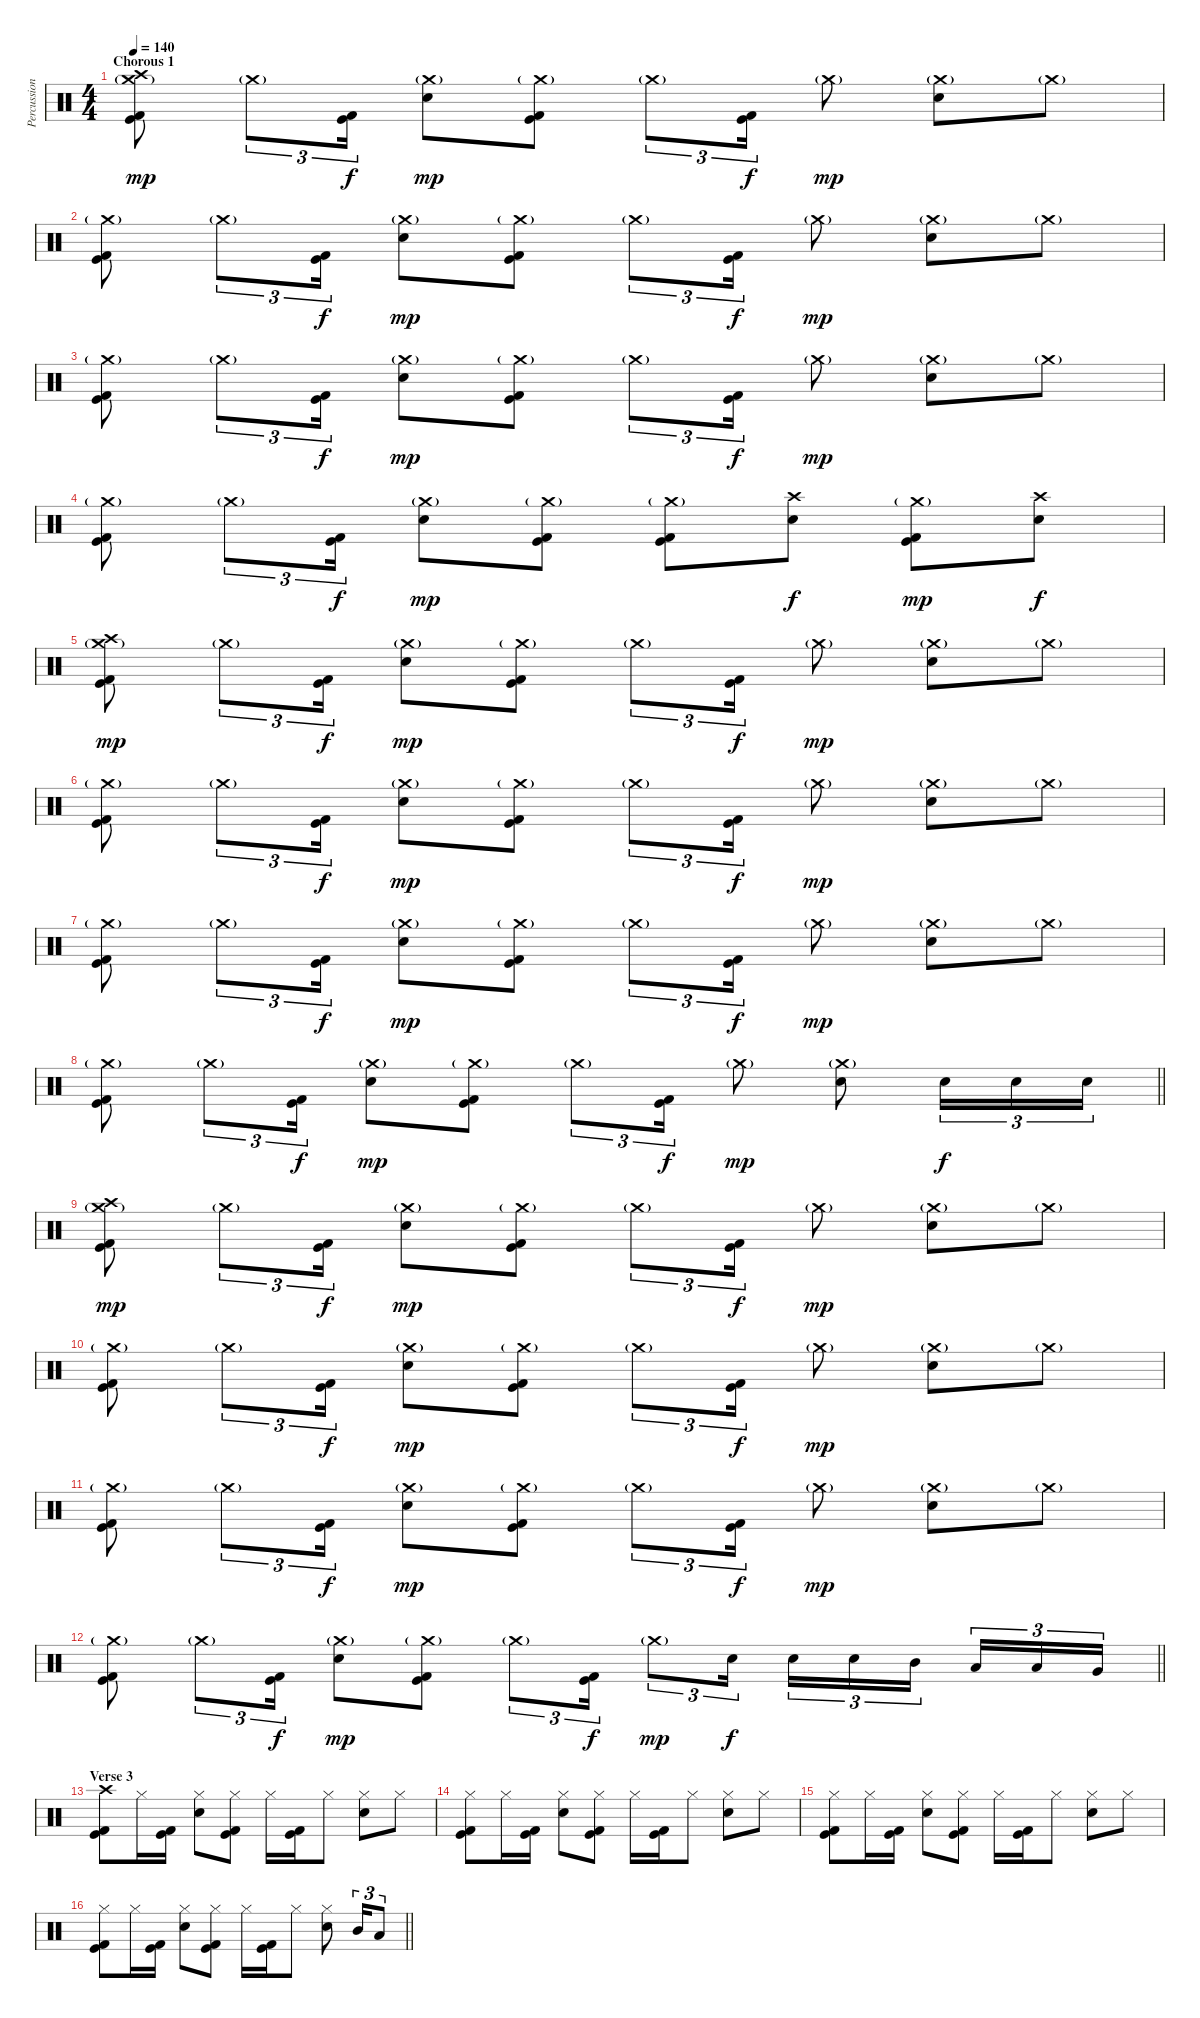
\track ("Percussion" "Percussion") {instrument percussion}
\staff {score}
\articulation defaults
\ts (4 4)
\section ("" "Chorous 1")
\tempo 140
\clef neutral
\ks c
("Crash medium (hit)"{g} "Crash high (hit)" "Kick (hit)" "Kick (hit) 2").8{dy mp} "Crash medium (hit)"{g}.8{tu (3 2)} ("Kick (hit)" "Kick (hit) 2").16{tu (3 2) dy f} ("Crash medium (hit)"{g} "Electric Snare (hit)").8{dy mp} ("Crash medium (hit)"{g} "Kick (hit)" "Kick (hit) 2").8 "Crash medium (hit)"{g}.8{tu (3 2)} ("Kick (hit)" "Kick (hit) 2").16{tu (3 2) dy f} "Crash medium (hit)"{g}.8{dy mp} ("Crash medium (hit)"{g} "Electric Snare (hit)").8 "Crash medium (hit)"{g}.8 |
("Crash medium (hit)"{g} "Kick (hit)" "Kick (hit) 2").8 "Crash medium (hit)"{g}.8{tu (3 2)} ("Kick (hit)" "Kick (hit) 2").16{tu (3 2) dy f} ("Crash medium (hit)"{g} "Electric Snare (hit)").8{dy mp} ("Crash medium (hit)"{g} "Kick (hit)" "Kick (hit) 2").8 "Crash medium (hit)"{g}.8{tu (3 2)} ("Kick (hit)" "Kick (hit) 2").16{tu (3 2) dy f} "Crash medium (hit)"{g}.8{dy mp} ("Crash medium (hit)"{g} "Electric Snare (hit)").8 "Crash medium (hit)"{g}.8 |
("Crash medium (hit)"{g} "Kick (hit)" "Kick (hit) 2").8 "Crash medium (hit)"{g}.8{tu (3 2)} ("Kick (hit)" "Kick (hit) 2").16{tu (3 2) dy f} ("Crash medium (hit)"{g} "Electric Snare (hit)").8{dy mp} ("Crash medium (hit)"{g} "Kick (hit)" "Kick (hit) 2").8 "Crash medium (hit)"{g}.8{tu (3 2)} ("Kick (hit)" "Kick (hit) 2").16{tu (3 2) dy f} "Crash medium (hit)"{g}.8{dy mp} ("Crash medium (hit)"{g} "Electric Snare (hit)").8 "Crash medium (hit)"{g}.8 |
("Crash medium (hit)"{g} "Kick (hit)" "Kick (hit) 2").8 "Crash medium (hit)"{g}.8{tu (3 2)} ("Kick (hit)" "Kick (hit) 2").16{tu (3 2) dy f} ("Crash medium (hit)"{g} "Electric Snare (hit)").8{dy mp} ("Crash medium (hit)"{g} "Kick (hit)" "Kick (hit) 2").8 ("Crash medium (hit)"{g} "Kick (hit)" "Kick (hit) 2").8 ("Crash high (hit)" "Electric Snare (hit)").8{dy f} ("Crash medium (hit)"{g} "Kick (hit)" "Kick (hit) 2").8{dy mp} ("Crash high (hit)" "Electric Snare (hit)").8{dy f} |
("Crash medium (hit)"{g} "Crash high (hit)" "Kick (hit)" "Kick (hit) 2").8{dy mp} "Crash medium (hit)"{g}.8{tu (3 2)} ("Kick (hit)" "Kick (hit) 2").16{tu (3 2) dy f} ("Crash medium (hit)"{g} "Electric Snare (hit)").8{dy mp} ("Crash medium (hit)"{g} "Kick (hit)" "Kick (hit) 2").8 "Crash medium (hit)"{g}.8{tu (3 2)} ("Kick (hit)" "Kick (hit) 2").16{tu (3 2) dy f} "Crash medium (hit)"{g}.8{dy mp} ("Crash medium (hit)"{g} "Electric Snare (hit)").8 "Crash medium (hit)"{g}.8 |
("Crash medium (hit)"{g} "Kick (hit)" "Kick (hit) 2").8 "Crash medium (hit)"{g}.8{tu (3 2)} ("Kick (hit)" "Kick (hit) 2").16{tu (3 2) dy f} ("Crash medium (hit)"{g} "Electric Snare (hit)").8{dy mp} ("Crash medium (hit)"{g} "Kick (hit)" "Kick (hit) 2").8 "Crash medium (hit)"{g}.8{tu (3 2)} ("Kick (hit)" "Kick (hit) 2").16{tu (3 2) dy f} "Crash medium (hit)"{g}.8{dy mp} ("Crash medium (hit)"{g} "Electric Snare (hit)").8 "Crash medium (hit)"{g}.8 |
("Crash medium (hit)"{g} "Kick (hit)" "Kick (hit) 2").8 "Crash medium (hit)"{g}.8{tu (3 2)} ("Kick (hit)" "Kick (hit) 2").16{tu (3 2) dy f} ("Crash medium (hit)"{g} "Electric Snare (hit)").8{dy mp} ("Crash medium (hit)"{g} "Kick (hit)" "Kick (hit) 2").8 "Crash medium (hit)"{g}.8{tu (3 2)} ("Kick (hit)" "Kick (hit) 2").16{tu (3 2) dy f} "Crash medium (hit)"{g}.8{dy mp} ("Crash medium (hit)"{g} "Electric Snare (hit)").8 "Crash medium (hit)"{g}.8 |
\barLineRight lightlight
("Crash medium (hit)"{g} "Kick (hit)" "Kick (hit) 2").8 "Crash medium (hit)"{g}.8{tu (3 2)} ("Kick (hit)" "Kick (hit) 2").16{tu (3 2) dy f} ("Crash medium (hit)"{g} "Electric Snare (hit)").8{dy mp} ("Crash medium (hit)"{g} "Kick (hit)" "Kick (hit) 2").8 "Crash medium (hit)"{g}.8{tu (3 2)} ("Kick (hit)" "Kick (hit) 2").16{tu (3 2) dy f} "Crash medium (hit)"{g}.8{dy mp} ("Crash medium (hit)"{g} "Electric Snare (hit)").8 "Electric Snare (hit)".16{tu (3 2) dy f} "Electric Snare (hit)".16{tu (3 2)} "Electric Snare (hit)".16{tu (3 2)} |
\section ("" "")
("Crash medium (hit)"{g} "Crash high (hit)" "Kick (hit)" "Kick (hit) 2").8{dy mp} "Crash medium (hit)"{g}.8{tu (3 2)} ("Kick (hit)" "Kick (hit) 2").16{tu (3 2) dy f} ("Crash medium (hit)"{g} "Electric Snare (hit)").8{dy mp} ("Crash medium (hit)"{g} "Kick (hit)" "Kick (hit) 2").8 "Crash medium (hit)"{g}.8{tu (3 2)} ("Kick (hit)" "Kick (hit) 2").16{tu (3 2) dy f} "Crash medium (hit)"{g}.8{dy mp} ("Crash medium (hit)"{g} "Electric Snare (hit)").8 "Crash medium (hit)"{g}.8 |
("Crash medium (hit)"{g} "Kick (hit)" "Kick (hit) 2").8 "Crash medium (hit)"{g}.8{tu (3 2)} ("Kick (hit)" "Kick (hit) 2").16{tu (3 2) dy f} ("Crash medium (hit)"{g} "Electric Snare (hit)").8{dy mp} ("Crash medium (hit)"{g} "Kick (hit)" "Kick (hit) 2").8 "Crash medium (hit)"{g}.8{tu (3 2)} ("Kick (hit)" "Kick (hit) 2").16{tu (3 2) dy f} "Crash medium (hit)"{g}.8{dy mp} ("Crash medium (hit)"{g} "Electric Snare (hit)").8 "Crash medium (hit)"{g}.8 |
("Crash medium (hit)"{g} "Kick (hit)" "Kick (hit) 2").8 "Crash medium (hit)"{g}.8{tu (3 2)} ("Kick (hit)" "Kick (hit) 2").16{tu (3 2) dy f} ("Crash medium (hit)"{g} "Electric Snare (hit)").8{dy mp} ("Crash medium (hit)"{g} "Kick (hit)" "Kick (hit) 2").8 "Crash medium (hit)"{g}.8{tu (3 2)} ("Kick (hit)" "Kick (hit) 2").16{tu (3 2) dy f} "Crash medium (hit)"{g}.8{dy mp} ("Crash medium (hit)"{g} "Electric Snare (hit)").8 "Crash medium (hit)"{g}.8 |
\barLineRight lightlight
("Crash medium (hit)"{g} "Kick (hit)" "Kick (hit) 2").8 "Crash medium (hit)"{g}.8{tu (3 2)} ("Kick (hit)" "Kick (hit) 2").16{tu (3 2) dy f} ("Crash medium (hit)"{g} "Electric Snare (hit)").8{dy mp} ("Crash medium (hit)"{g} "Kick (hit)" "Kick (hit) 2").8 "Crash medium (hit)"{g}.8{tu (3 2)} ("Kick (hit)" "Kick (hit) 2").16{tu (3 2) dy f} "Crash medium (hit)"{g}.8{tu (3 2) dy mp} "Electric Snare (hit)".16{tu (3 2) dy f} "Electric Snare (hit)".16{tu (3 2)} "Electric Snare (hit)".16{tu (3 2)} "Mid Tom (hit)".16{tu (3 2) beam splitsecondary} "Low Tom (hit)".16{tu (3 2)} "Low Tom (hit)".16{tu (3 2)} "Very Low Tom (hit)".16{tu (3 2)} |
\section ("" "Verse 3")
("Crash high (hit)" "Kick (hit)" "Kick (hit) 2").8 "Hi-Hat (closed)".16 ("Kick (hit)" "Kick (hit) 2").16 ("Hi-Hat (closed)" "Electric Snare (hit)").8 ("Hi-Hat (closed)" "Kick (hit)" "Kick (hit) 2").8 "Hi-Hat (closed)".16 ("Kick (hit)" "Kick (hit) 2").16 "Hi-Hat (closed)".8 ("Hi-Hat (closed)" "Electric Snare (hit)").8 "Hi-Hat (closed)".8 |
("Hi-Hat (closed)" "Kick (hit)" "Kick (hit) 2").8 "Hi-Hat (closed)".16 ("Kick (hit)" "Kick (hit) 2").16 ("Hi-Hat (closed)" "Electric Snare (hit)").8 ("Hi-Hat (closed)" "Kick (hit)" "Kick (hit) 2").8 "Hi-Hat (closed)".16 ("Kick (hit)" "Kick (hit) 2").16 "Hi-Hat (closed)".8 ("Hi-Hat (closed)" "Electric Snare (hit)").8 "Hi-Hat (closed)".8 |
("Hi-Hat (closed)" "Kick (hit)" "Kick (hit) 2").8 "Hi-Hat (closed)".16 ("Kick (hit)" "Kick (hit) 2").16 ("Hi-Hat (closed)" "Electric Snare (hit)").8 ("Hi-Hat (closed)" "Kick (hit)" "Kick (hit) 2").8 "Hi-Hat (closed)".16 ("Kick (hit)" "Kick (hit) 2").16 "Hi-Hat (closed)".8 ("Hi-Hat (closed)" "Electric Snare (hit)").8 "Hi-Hat (closed)".8 |
\barLineRight lightlight
("Hi-Hat (closed)" "Kick (hit)" "Kick (hit) 2").8 "Hi-Hat (closed)".16 ("Kick (hit)" "Kick (hit) 2").16 ("Hi-Hat (closed)" "Electric Snare (hit)").8 ("Hi-Hat (closed)" "Kick (hit)" "Kick (hit) 2").8 "Hi-Hat (closed)".16 ("Kick (hit)" "Kick (hit) 2").16 "Hi-Hat (closed)".8 ("Hi-Hat (closed)" "Electric Snare (hit)").8 "Mid Tom (hit)".16{tu (3 2)} "Low Tom (hit)".8{tu (3 2)}
